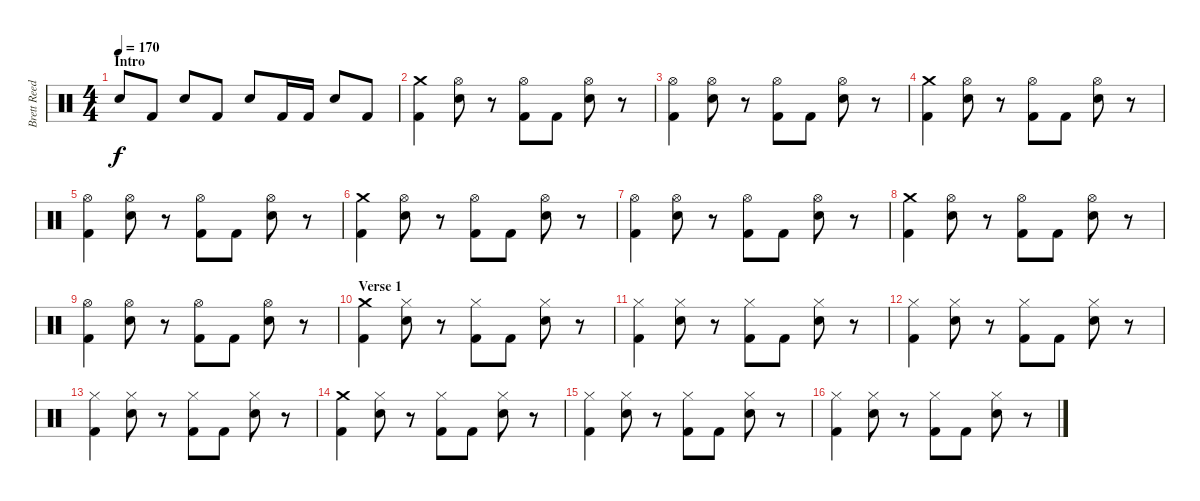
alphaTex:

\track ("Brett Reed" "Brett Reed") {instrument percussion}
\staff {score}
\articulation defaults
\ts (4 4)
\section ("" "Intro")
\tempo 170
\clef neutral
\ks c "Snare (hit) 2".8{dy f} "Kick (hit) 2".8 "Snare (hit) 2".8 "Kick (hit) 2".8 "Snare (hit) 2".8 "Kick (hit) 2".16 "Kick (hit) 2".16 "Snare (hit) 2".8 "Kick (hit) 2".8
|
("Crash medium (hit)" "Kick (hit) 2").4 ("Hi-Hat (open)" "Snare (hit) 2").8 r.8 ("Hi-Hat (open)" "Kick (hit) 2").8 "Kick (hit) 2".8 ("Hi-Hat (open)" "Snare (hit) 2").8 r.8 |
("Hi-Hat (open)" "Kick (hit) 2").4 ("Hi-Hat (open)" "Snare (hit) 2").8 r.8 ("Hi-Hat (open)" "Kick (hit) 2").8 "Kick (hit) 2".8 ("Hi-Hat (open)" "Snare (hit) 2").8 r.8 |
("Crash medium (hit)" "Kick (hit) 2").4 ("Hi-Hat (open)" "Snare (hit) 2").8 r.8 ("Hi-Hat (open)" "Kick (hit) 2").8 "Kick (hit) 2".8 ("Hi-Hat (open)" "Snare (hit) 2").8 r.8 |
("Hi-Hat (open)" "Kick (hit) 2").4 ("Hi-Hat (open)" "Snare (hit) 2").8 r.8 ("Hi-Hat (open)" "Kick (hit) 2").8 "Kick (hit) 2".8 ("Hi-Hat (open)" "Snare (hit) 2").8 r.8 |
("Crash medium (hit)" "Kick (hit) 2").4 ("Hi-Hat (open)" "Snare (hit) 2").8 r.8 ("Hi-Hat (open)" "Kick (hit) 2").8 "Kick (hit) 2".8 ("Hi-Hat (open)" "Snare (hit) 2").8 r.8 |
("Hi-Hat (open)" "Kick (hit) 2").4 ("Hi-Hat (open)" "Snare (hit) 2").8 r.8 ("Hi-Hat (open)" "Kick (hit) 2").8 "Kick (hit) 2".8 ("Hi-Hat (open)" "Snare (hit) 2").8 r.8 |
("Crash medium (hit)" "Kick (hit) 2").4 ("Hi-Hat (open)" "Snare (hit) 2").8 r.8 ("Hi-Hat (open)" "Kick (hit) 2").8 "Kick (hit) 2".8 ("Hi-Hat (open)" "Snare (hit) 2").8 r.8 |
("Hi-Hat (open)" "Kick (hit) 2").4 ("Hi-Hat (open)" "Snare (hit) 2").8 r.8 ("Hi-Hat (open)" "Kick (hit) 2").8 "Kick (hit) 2".8 ("Hi-Hat (open)" "Snare (hit) 2").8 r.8 |
\section ("" "Verse 1")
("Crash medium (hit)" "Kick (hit) 2").4 ("Hi-Hat (closed)" "Snare (hit) 2").8 r.8 ("Hi-Hat (closed)" "Kick (hit) 2").8 "Kick (hit) 2".8 ("Hi-Hat (closed)" "Snare (hit) 2").8 r.8 |
("Hi-Hat (closed)" "Kick (hit) 2").4 ("Hi-Hat (closed)" "Snare (hit) 2").8 r.8 ("Hi-Hat (closed)" "Kick (hit) 2").8 "Kick (hit) 2".8 ("Hi-Hat (closed)" "Snare (hit) 2").8 r.8 |
("Hi-Hat (closed)" "Kick (hit) 2").4 ("Hi-Hat (closed)" "Snare (hit) 2").8 r.8 ("Hi-Hat (closed)" "Kick (hit) 2").8 "Kick (hit) 2".8 ("Hi-Hat (closed)" "Snare (hit) 2").8 r.8 |
("Hi-Hat (closed)" "Kick (hit) 2").4 ("Hi-Hat (closed)" "Snare (hit) 2").8 r.8 ("Hi-Hat (closed)" "Kick (hit) 2").8 "Kick (hit) 2".8 ("Hi-Hat (closed)" "Snare (hit) 2").8 r.8 |
("Crash medium (hit)" "Kick (hit) 2").4 ("Hi-Hat (closed)" "Snare (hit) 2").8 r.8 ("Hi-Hat (closed)" "Kick (hit) 2").8 "Kick (hit) 2".8 ("Hi-Hat (closed)" "Snare (hit) 2").8 r.8 |
("Hi-Hat (closed)" "Kick (hit) 2").4 ("Hi-Hat (closed)" "Snare (hit) 2").8 r.8 ("Hi-Hat (closed)" "Kick (hit) 2").8 "Kick (hit) 2".8 ("Hi-Hat (closed)" "Snare (hit) 2").8 r.8 |
("Hi-Hat (closed)" "Kick (hit) 2").4 ("Hi-Hat (closed)" "Snare (hit) 2").8 r.8 ("Hi-Hat (closed)" "Kick (hit) 2").8 "Kick (hit) 2".8 ("Hi-Hat (closed)" "Snare (hit) 2").8 r.8
